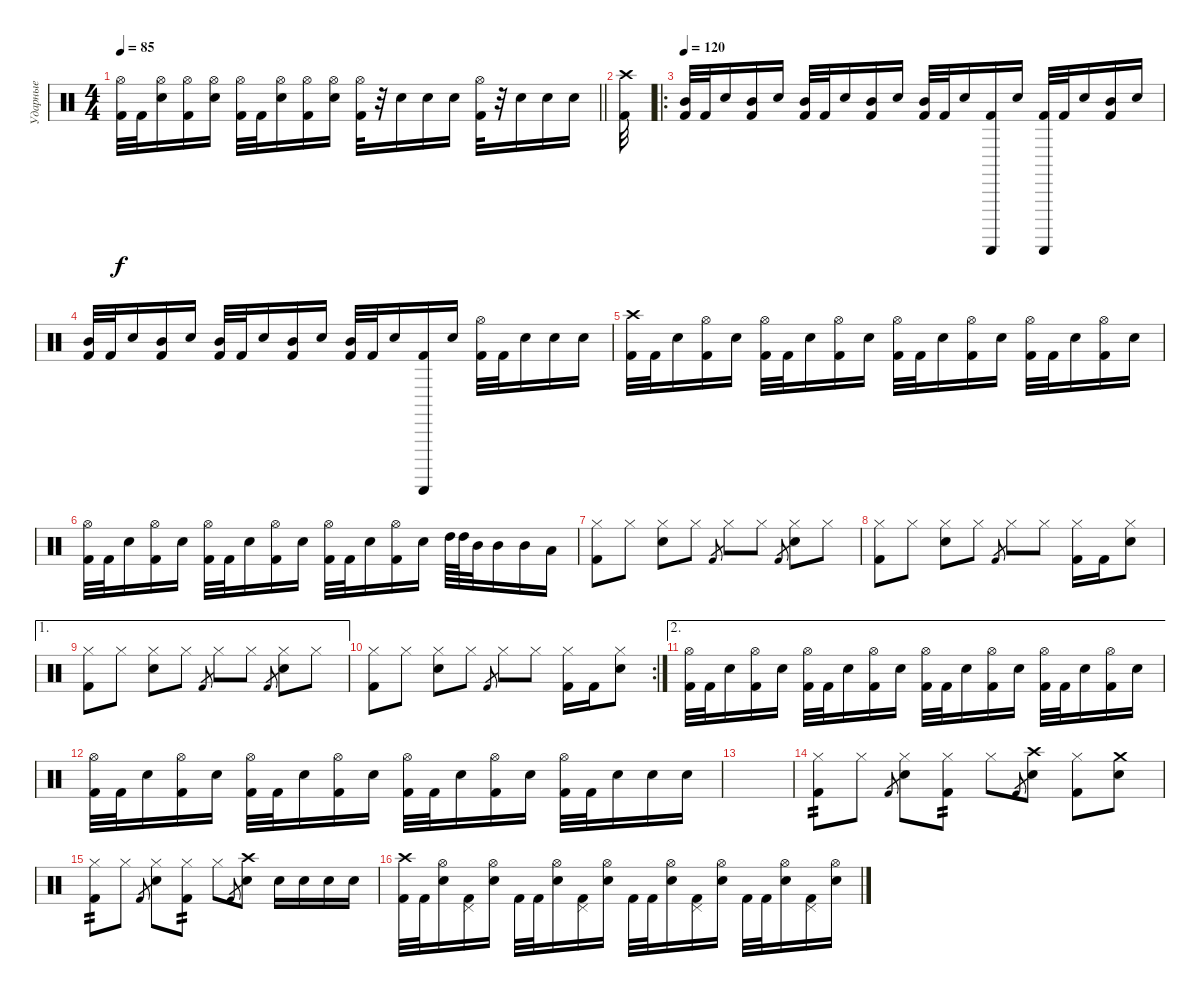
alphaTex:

\track ("Ударные" "Ударные") {instrument percussion}
\staff {score}
\articulation defaults
\ts (4 4)
\tempo 85
\clef neutral
\barLineRight lightlight
\ks c
("Kick (hit) 2" "Hi-Hat (open)").32{dy f} "Kick (hit) 2".32 ("Electric Snare (hit)" "Hi-Hat (open)").16 ("Kick (hit) 2" "Hi-Hat (open)").16 ("Electric Snare (hit)" "Hi-Hat (open)").16 ("Kick (hit) 2" "Hi-Hat (open)").32 "Kick (hit) 2".32 ("Electric Snare (hit)" "Hi-Hat (open)").16 ("Kick (hit) 2" "Hi-Hat (open)").16 ("Electric Snare (hit)" "Hi-Hat (open)").16 ("Kick (hit) 2" "Hi-Hat (open)").32 r.32 "Electric Snare (hit)".16 "Electric Snare (hit)".16 "Electric Snare (hit)".16 ("Kick (hit) 2" "Hi-Hat (open)").32 r.32 "Electric Snare (hit)".16 "Electric Snare (hit)".16 "Electric Snare (hit)".16 |
("Kick (hit) 2" "Crash high (hit)").32 |
\ro
\tempo 120
("Kick (hit) 2" "Mid Tom (hit)").32 "Kick (hit) 2".32 "Electric Snare (hit)".16 ("Kick (hit) 2" "Mid Tom (hit)").16 "Electric Snare (hit)".16 ("Kick (hit) 2" "Mid Tom (hit)").32 "Kick (hit) 2".32 "Electric Snare (hit)".16 ("Kick (hit) 2" "Mid Tom (hit)").16 "Electric Snare (hit)".16 ("Kick (hit) 2" "Mid Tom (hit)").32 "Kick (hit) 2".32 "Electric Snare (hit)".16 ("Kick (hit) 2" "Guiro (scrap-return)").16 "Electric Snare (hit)".16 ("Kick (hit) 2" "Guiro (scrap-return)").32 "Kick (hit) 2".32 "Electric Snare (hit)".16 ("Kick (hit) 2" "Mid Tom (hit)").16 "Electric Snare (hit)".16 |
("Kick (hit) 2" "Mid Tom (hit)").32 "Kick (hit) 2".32 "Electric Snare (hit)".16 ("Kick (hit) 2" "Mid Tom (hit)").16 "Electric Snare (hit)".16 ("Kick (hit) 2" "Mid Tom (hit)").32 "Kick (hit) 2".32 "Electric Snare (hit)".16 ("Kick (hit) 2" "Mid Tom (hit)").16 "Electric Snare (hit)".16 ("Kick (hit) 2" "Mid Tom (hit)").32 "Kick (hit) 2".32 "Electric Snare (hit)".16 ("Kick (hit) 2" "Guiro (scrap-return)").16 "Electric Snare (hit)".16 ("Kick (hit) 2" "Hi-Hat (open)").32 "Kick (hit) 2".32 "Electric Snare (hit)".16 "Electric Snare (hit)".16 "Electric Snare (hit)".16 |
("Kick (hit) 2" "Crash high (hit)").32 "Kick (hit) 2".32 "Electric Snare (hit)".16 ("Kick (hit) 2" "Hi-Hat (open)").16 "Electric Snare (hit)".16 ("Kick (hit) 2" "Hi-Hat (open)").32 "Kick (hit) 2".32 "Electric Snare (hit)".16 ("Kick (hit) 2" "Hi-Hat (open)").16 "Electric Snare (hit)".16 ("Kick (hit) 2" "Hi-Hat (open)").32 "Kick (hit) 2".32 "Electric Snare (hit)".16 ("Kick (hit) 2" "Hi-Hat (open)").16 "Electric Snare (hit)".16 ("Kick (hit) 2" "Hi-Hat (open)").32 "Kick (hit) 2".32 "Electric Snare (hit)".16 ("Kick (hit) 2" "Hi-Hat (open)").16 "Electric Snare (hit)".16 |
("Kick (hit) 2" "Hi-Hat (open)").32 "Kick (hit) 2".32 "Electric Snare (hit)".16 ("Kick (hit) 2" "Hi-Hat (open)").16 "Electric Snare (hit)".16 ("Kick (hit) 2" "Hi-Hat (open)").32 "Kick (hit) 2".32 "Electric Snare (hit)".16 ("Kick (hit) 2" "Hi-Hat (open)").16 "Electric Snare (hit)".16 ("Kick (hit) 2" "Hi-Hat (open)").32 "Kick (hit) 2".32 "Electric Snare (hit)".16 ("Kick (hit) 2" "Hi-Hat (open)").16 "Electric Snare (hit)".16 "High Tom (hit)".64 "High Tom (hit)".64 "Mid Tom (hit)".32 "Mid Tom (hit)".16 "Mid Tom (hit)".16 "Low Floor Tom (hit)".16 |
("Kick (hit) 2" "Hi-Hat (closed)").8 "Hi-Hat (closed)".8 ("Electric Snare (hit)" "Hi-Hat (closed)").8 "Hi-Hat (closed)".8 "Kick (hit) 2".8{gr} "Hi-Hat (closed)".8 "Hi-Hat (closed)".8 "Kick (hit) 2".8{gr} ("Electric Snare (hit)" "Hi-Hat (closed)").8 "Hi-Hat (closed)".8 |
("Kick (hit) 2" "Hi-Hat (closed)").8 "Hi-Hat (closed)".8 ("Electric Snare (hit)" "Hi-Hat (closed)").8 "Hi-Hat (closed)".8 "Kick (hit) 2".8{gr} "Hi-Hat (closed)".8 "Hi-Hat (closed)".8 ("Kick (hit) 2" "Hi-Hat (closed)").16 "Kick (hit) 2".16 ("Electric Snare (hit)" "Hi-Hat (closed)").8 |
\ae 1
("Kick (hit) 2" "Hi-Hat (closed)").8 "Hi-Hat (closed)".8 ("Electric Snare (hit)" "Hi-Hat (closed)").8 "Hi-Hat (closed)".8 "Kick (hit) 2".8{gr} "Hi-Hat (closed)".8 "Hi-Hat (closed)".8 "Kick (hit) 2".8{gr} ("Electric Snare (hit)" "Hi-Hat (closed)").8 "Hi-Hat (closed)".8 |
\rc 2
("Kick (hit) 2" "Hi-Hat (closed)").8 "Hi-Hat (closed)".8 ("Electric Snare (hit)" "Hi-Hat (closed)").8 "Hi-Hat (closed)".8 "Kick (hit) 2".8{gr} "Hi-Hat (closed)".8 "Hi-Hat (closed)".8 ("Kick (hit) 2" "Hi-Hat (closed)").16 "Kick (hit) 2".16 ("Electric Snare (hit)" "Hi-Hat (closed)").8 |
\ae 2
("Kick (hit) 2" "Hi-Hat (open)").32 "Kick (hit) 2".32 "Electric Snare (hit)".16 ("Kick (hit) 2" "Hi-Hat (open)").16 "Electric Snare (hit)".16 ("Kick (hit) 2" "Hi-Hat (open)").32 "Kick (hit) 2".32 "Electric Snare (hit)".16 ("Kick (hit) 2" "Hi-Hat (open)").16 "Electric Snare (hit)".16 ("Kick (hit) 2" "Hi-Hat (open)").32 "Kick (hit) 2".32 "Electric Snare (hit)".16 ("Kick (hit) 2" "Hi-Hat (open)").16 "Electric Snare (hit)".16 ("Kick (hit) 2" "Hi-Hat (open)").32 "Kick (hit) 2".32 "Electric Snare (hit)".16 ("Kick (hit) 2" "Hi-Hat (open)").16 "Electric Snare (hit)".16 |
("Kick (hit) 2" "Hi-Hat (open)").32 "Kick (hit) 2".32 "Electric Snare (hit)".16 ("Kick (hit) 2" "Hi-Hat (open)").16 "Electric Snare (hit)".16 ("Kick (hit) 2" "Hi-Hat (open)").32 "Kick (hit) 2".32 "Electric Snare (hit)".16 ("Kick (hit) 2" "Hi-Hat (open)").16 "Electric Snare (hit)".16 ("Kick (hit) 2" "Hi-Hat (open)").32 "Kick (hit) 2".32 "Electric Snare (hit)".16 ("Kick (hit) 2" "Hi-Hat (open)").16 "Electric Snare (hit)".16 ("Kick (hit) 2" "Hi-Hat (open)").32 "Kick (hit) 2".32 "Electric Snare (hit)".16 "Electric Snare (hit)".16 "Electric Snare (hit)".16 |
|
("Kick (hit) 2" "Hi-Hat (closed)").8{tp 2} "Hi-Hat (closed)".8 "Kick (hit) 2".8{gr} ("Electric Snare (hit)" "Hi-Hat (closed)").8 ("Kick (hit) 2" "Hi-Hat (closed)").8{tp 2} "Hi-Hat (closed)".8 "Kick (hit) 2".8{gr} ("Electric Snare (hit)" "Crash high (hit)").8 ("Kick (hit) 2" "Hi-Hat (closed)").8 ("Electric Snare (hit)" "Crash medium (hit)").8 |
("Kick (hit) 2" "Hi-Hat (closed)").8{tp 2} "Hi-Hat (closed)".8 "Kick (hit) 2".8{gr} ("Electric Snare (hit)" "Hi-Hat (closed)").8 ("Kick (hit) 2" "Hi-Hat (closed)").8{tp 2} "Hi-Hat (closed)".8 "Kick (hit) 2".8{gr} ("Electric Snare (hit)" "Crash high (hit)").8 "Electric Snare (hit)".16 "Electric Snare (hit)".16 "Electric Snare (hit)".16 "Electric Snare (hit)".16 |
("Kick (hit) 2" "Crash high (hit)").32 "Kick (hit) 2".32 ("Electric Snare (hit)" "Hi-Hat (open)").16 ("Kick (hit) 2" "Pedal Hi-Hat (hit)").16 ("Electric Snare (hit)" "Hi-Hat (open)").16 "Kick (hit) 2".32 "Kick (hit) 2".32 ("Electric Snare (hit)" "Hi-Hat (open)").16 ("Kick (hit) 2" "Pedal Hi-Hat (hit)").16 ("Electric Snare (hit)" "Hi-Hat (open)").16 "Kick (hit) 2".32 "Kick (hit) 2".32 ("Electric Snare (hit)" "Hi-Hat (open)").16 ("Kick (hit) 2" "Pedal Hi-Hat (hit)").16 ("Electric Snare (hit)" "Hi-Hat (open)").16 "Kick (hit) 2".32 "Kick (hit) 2".32 ("Electric Snare (hit)" "Hi-Hat (open)").16 ("Kick (hit) 2" "Pedal Hi-Hat (hit)").16 ("Electric Snare (hit)" "Hi-Hat (open)").16
